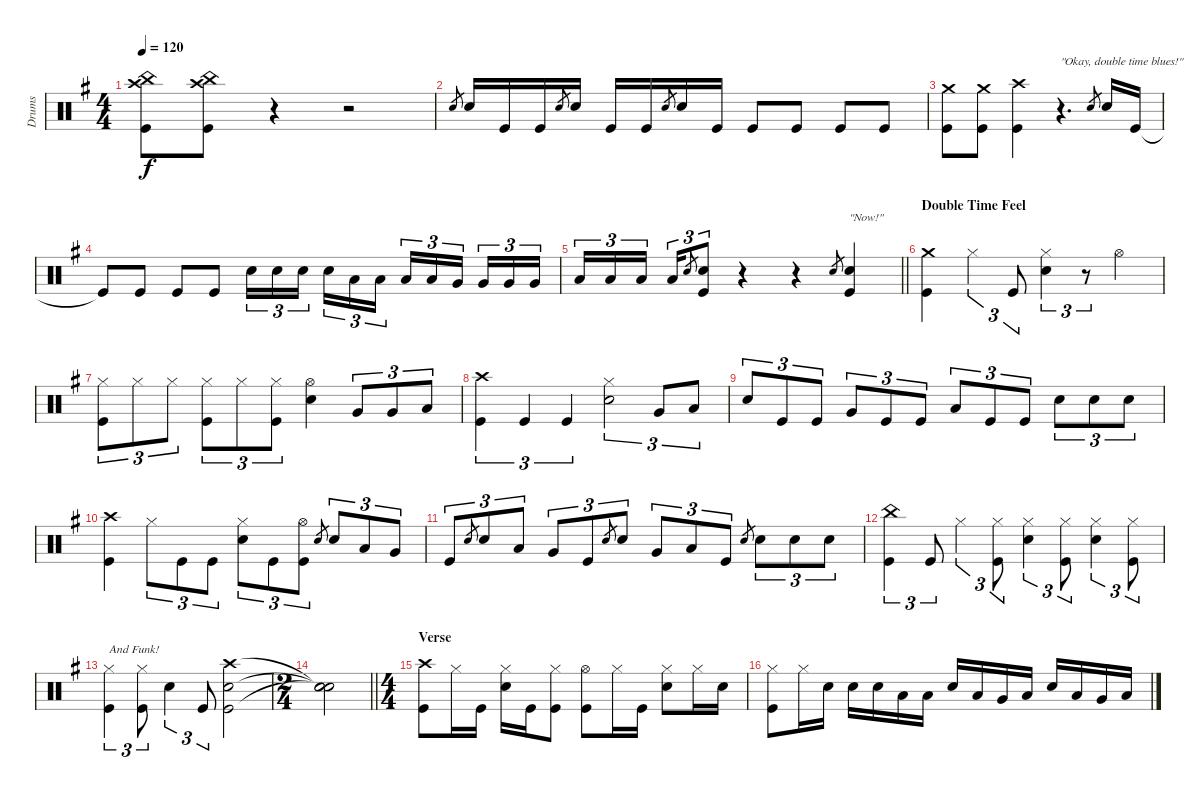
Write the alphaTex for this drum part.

\track ("Drums" "Drums") {instrument percussion}
\staff {score}
\articulation defaults
\ts (4 4)
\tempo 120
\clef neutral
\ks eminor
("Crash high (hit)" "China (hit)" "Kick (hit)").8{dy f} ("Crash high (hit)" "China (hit)" "Kick (hit)").8 r.4 r.2 |
"Snare (hit) 2".8{gr} "Snare (hit) 2".16 "Kick (hit)".16 "Kick (hit)".16 "Snare (hit) 2".8{gr} "Snare (hit) 2".16 "Kick (hit)".16 "Kick (hit)".16 "Snare (hit) 2".8{gr} "Snare (hit) 2".16 "Kick (hit)".16 "Kick (hit)".8 "Kick (hit)".8 "Kick (hit)".8 "Kick (hit)".8 |
("Crash medium (hit)" "Kick (hit)").8 ("Crash medium (hit)" "Kick (hit)").8 ("Crash high (hit)" "Kick (hit)").4 r.4{d txt "\"Okay, double time blues!\""} "Snare (hit) 2".8{gr} "Snare (hit) 2".16 "Kick (hit)".16 |
"Kick (hit)"{t}.8 "Kick (hit)".8 "Kick (hit)".8 "Kick (hit)".8 "Snare (hit) 2".16{tu (3 2)} "Snare (hit) 2".16{tu (3 2)} "Snare (hit) 2".16{tu (3 2) beam splitsecondary} "Snare (hit) 2".16{tu (3 2)} "Low Tom (hit)".16{tu (3 2)} "Low Tom (hit)".16{tu (3 2)} "Low Tom (hit)".16{tu (3 2)} "Low Tom (hit)".16{tu (3 2)} "Very Low Tom (hit)".16{tu (3 2) beam splitsecondary} "Very Low Tom (hit)".16{tu (3 2)} "Very Low Tom (hit)".16{tu (3 2)} "Very Low Tom (hit)".16{tu (3 2)} |
\barLineRight lightlight "Low Floor Tom (hit)".16{tu (3 2)} "Low Floor Tom (hit)".16{tu (3 2)} "Low Floor Tom (hit)".16{tu (3 2) beam splitsecondary} "Low Floor Tom (hit)".16{tu (3 2)} "Snare (hit) 2".8{gr}
("Snare (hit) 2" "Kick (hit)").8{tu (3 2)} r.4 r.4 "Snare (hit) 2".8{gr} ("Snare (hit) 2" "Kick (hit)").4{txt "\"Now!\""} |
\section ("" "Double Time Feel")
("Crash medium (hit)" "Kick (hit)").4 "Hi-Hat (closed)".4{tu (3 2)} "Kick (hit)".8{tu (3 2)} ("Hi-Hat (closed)" "Snare (hit) 2").4{tu (3 2)} r.8{tu (3 2)} "Hi-Hat (open)".4 |
("Hi-Hat (closed)" "Kick (hit)").8{tu (3 2)} "Hi-Hat (closed)".8{tu (3 2)} "Hi-Hat (closed)".8{tu (3 2)} ("Hi-Hat (closed)" "Kick (hit)").8{tu (3 2)} "Hi-Hat (closed)".8{tu (3 2)} ("Hi-Hat (closed)" "Kick (hit)").8{tu (3 2)} ("Hi-Hat (open)" "Snare (hit) 2").4 "Very Low Tom (hit)".8{tu (3 2)} "Very Low Tom (hit)".8{tu (3 2)} "Low Floor Tom (hit)".8{tu (3 2)} |
("Crash high (hit)" "Kick (hit)").4{tu (3 2)} "Kick (hit)".4{tu (3 2)} "Kick (hit)".4{tu (3 2)} ("Hi-Hat (closed)" "Snare (hit) 2").2{tu (3 2)} "Very Low Tom (hit)".8{tu (3 2)} "Low Floor Tom (hit)".8{tu (3 2)} |
"Snare (hit) 2".8{tu (3 2)} "Kick (hit)".8{tu (3 2)} "Kick (hit)".8{tu (3 2)} "Very Low Tom (hit)".8{tu (3 2)} "Kick (hit)".8{tu (3 2)} "Kick (hit)".8{tu (3 2)} "Low Floor Tom (hit)".8{tu (3 2)} "Kick (hit)".8{tu (3 2)} "Kick (hit)".8{tu (3 2)} "Snare (hit) 2".8{tu (3 2)} "Snare (hit) 2".8{tu (3 2)} "Snare (hit) 2".8{tu (3 2)} |
("Crash high (hit)" "Kick (hit)").4 "Hi-Hat (closed)".8{tu (3 2)} "Kick (hit)".8{tu (3 2)} "Kick (hit)".8{tu (3 2)} ("Hi-Hat (closed)" "Snare (hit) 2").8{tu (3 2)} "Kick (hit)".8{tu (3 2)} ("Hi-Hat (open)" "Kick (hit)").8{tu (3 2)} "Snare (hit) 2".8{gr} "Snare (hit) 2".8{tu (3 2)} "Low Tom (hit)".8{tu (3 2)} "Very Low Tom (hit)".8{tu (3 2)} |
"Kick (hit)".8{tu (3 2)} "Snare (hit) 2".8{gr} "Snare (hit) 2".8{tu (3 2)} "Low Tom (hit)".8{tu (3 2)} "Very Low Tom (hit)".8{tu (3 2)} "Kick (hit)".8{tu (3 2)} "Snare (hit) 2".8{gr} "Snare (hit) 2".8{tu (3 2)} "Very Low Tom (hit)".8{tu (3 2)} "Low Floor Tom (hit)".8{tu (3 2)} "Kick (hit)".8{tu (3 2)} "Snare (hit) 2".8{gr} "Snare (hit) 2".8{tu (3 2)} "Snare (hit) 2".8{tu (3 2)} "Snare (hit) 2".8{tu (3 2)} |
("China (hit)" "Kick (hit)").4{tu (3 2)} "Kick (hit)".8{tu (3 2)} "Hi-Hat (closed)".4{tu (3 2)} ("Hi-Hat (closed)" "Kick (hit)").8{tu (3 2)} ("Hi-Hat (closed)" "Snare (hit) 2").4{tu (3 2)} ("Hi-Hat (closed)" "Kick (hit)").8{tu (3 2)} ("Hi-Hat (closed)" "Snare (hit) 2").4{tu (3 2)} ("Hi-Hat (closed)" "Kick (hit)").8{tu (3 2)} |
("Hi-Hat (closed)" "Kick (hit)").4{tu (3 2) txt "And Funk!"} ("Hi-Hat (closed)" "Kick (hit)").8{tu (3 2)} "Snare (hit) 2".4{tu (3 2)} "Kick (hit)".8{tu (3 2)} ("Crash high (hit)" "Snare (hit) 2" "Kick (hit)").2 |
\ts (2 4)
\barLineRight lightlight
("Snare (hit)"{t} "Snare (hit)"{t} "Snare (hit)"{t}).2 |
\ts (4 4)
\section ("" "Verse")
("Crash high (hit)" "Kick (hit)").8 "Hi-Hat (closed)".16 "Kick (hit)".16 ("Hi-Hat (closed)" "Snare (hit) 2").16 "Kick (hit)".16 ("Hi-Hat (closed)" "Kick (hit)").8 ("Hi-Hat (open)" "Kick (hit)").8 "Hi-Hat (closed)".16 "Kick (hit)".16 ("Hi-Hat (closed)" "Snare (hit) 2").8 "Hi-Hat (closed)".16 "Snare (hit) 2".16 |
("Hi-Hat (closed)" "Kick (hit)").8 "Hi-Hat (closed)".16 "Snare (hit) 2".16 "Snare (hit) 2".16 "Snare (hit) 2".16 "Low Tom (hit)".16 "Low Tom (hit)".16 "Snare (hit) 2".16 "Low Tom (hit)".16 "Very Low Tom (hit)".16 "Low Floor Tom (hit)".16 "Snare (hit) 2".16 "Low Tom (hit)".16 "Very Low Tom (hit)".16 "Low Floor Tom (hit)".16
